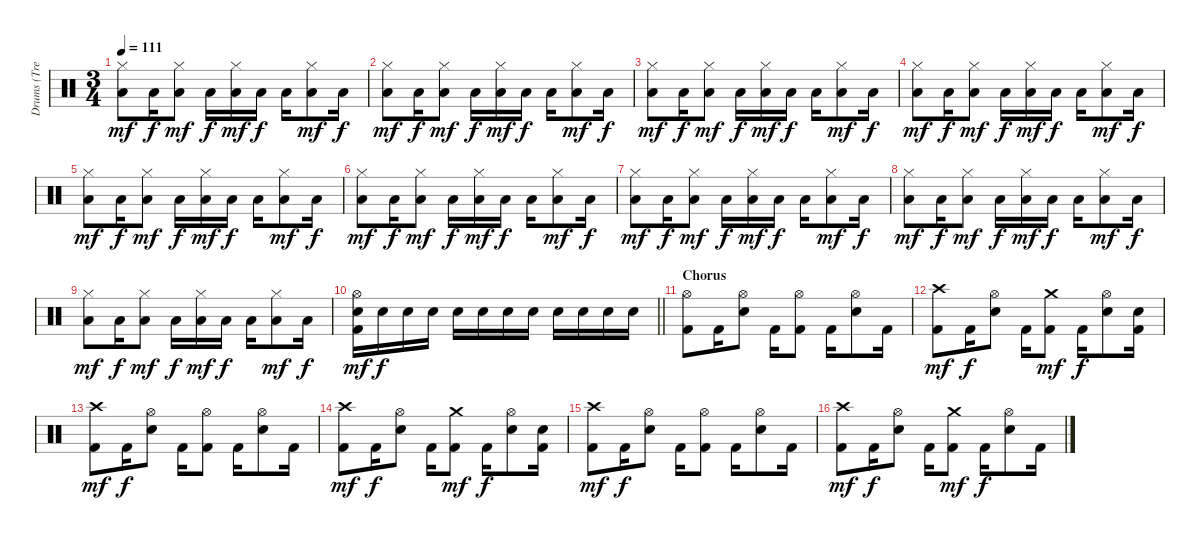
\track ("Drums (Tre Cool)" "Drums (Tre") {instrument percussion}
\staff {score}
\articulation defaults
\ts (3 4)
\tempo 111
\clef neutral
\ks c
("Hi-Hat (closed)" "Low Floor Tom (hit)").8{dy mf} "Low Floor Tom (hit)".16{dy f} ("Hi-Hat (closed)" "Low Tom (hit)").8{dy mf} "Low Tom (hit)".16{dy f} ("Hi-Hat (closed)" "Low Floor Tom (hit)").16{dy mf} "Low Floor Tom (hit)".16{dy f} "Low Floor Tom (hit)".16 ("Hi-Hat (closed)" "Low Tom (hit)").8{dy mf} "Low Tom (hit)".16{dy f} |
("Hi-Hat (closed)" "Low Floor Tom (hit)").8{dy mf} "Low Floor Tom (hit)".16{dy f} ("Hi-Hat (closed)" "Low Tom (hit)").8{dy mf} "Low Tom (hit)".16{dy f} ("Hi-Hat (closed)" "Low Floor Tom (hit)").16{dy mf} "Low Floor Tom (hit)".16{dy f} "Low Floor Tom (hit)".16 ("Hi-Hat (closed)" "Low Tom (hit)").8{dy mf} "Low Tom (hit)".16{dy f} |
("Hi-Hat (closed)" "Low Floor Tom (hit)").8{dy mf} "Low Floor Tom (hit)".16{dy f} ("Hi-Hat (closed)" "Low Tom (hit)").8{dy mf} "Low Tom (hit)".16{dy f} ("Hi-Hat (closed)" "Low Floor Tom (hit)").16{dy mf} "Low Floor Tom (hit)".16{dy f} "Low Floor Tom (hit)".16 ("Hi-Hat (closed)" "Low Tom (hit)").8{dy mf} "Low Tom (hit)".16{dy f} |
("Hi-Hat (closed)" "Low Floor Tom (hit)").8{dy mf} "Low Floor Tom (hit)".16{dy f} ("Hi-Hat (closed)" "Low Tom (hit)").8{dy mf} "Low Tom (hit)".16{dy f} ("Hi-Hat (closed)" "Low Floor Tom (hit)").16{dy mf} "Low Floor Tom (hit)".16{dy f} "Low Floor Tom (hit)".16 ("Hi-Hat (closed)" "Low Tom (hit)").8{dy mf} "Low Tom (hit)".16{dy f} |
("Hi-Hat (closed)" "Low Floor Tom (hit)").8{dy mf} "Low Floor Tom (hit)".16{dy f} ("Hi-Hat (closed)" "Low Tom (hit)").8{dy mf} "Low Tom (hit)".16{dy f} ("Hi-Hat (closed)" "Low Floor Tom (hit)").16{dy mf} "Low Floor Tom (hit)".16{dy f} "Low Floor Tom (hit)".16 ("Hi-Hat (closed)" "Low Tom (hit)").8{dy mf} "Low Tom (hit)".16{dy f} |
("Hi-Hat (closed)" "Low Floor Tom (hit)").8{dy mf} "Low Floor Tom (hit)".16{dy f} ("Hi-Hat (closed)" "Low Tom (hit)").8{dy mf} "Low Tom (hit)".16{dy f} ("Hi-Hat (closed)" "Low Floor Tom (hit)").16{dy mf} "Low Floor Tom (hit)".16{dy f} "Low Floor Tom (hit)".16 ("Hi-Hat (closed)" "Low Tom (hit)").8{dy mf} "Low Tom (hit)".16{dy f} |
("Hi-Hat (closed)" "Low Floor Tom (hit)").8{dy mf} "Low Floor Tom (hit)".16{dy f} ("Hi-Hat (closed)" "Low Tom (hit)").8{dy mf} "Low Tom (hit)".16{dy f} ("Hi-Hat (closed)" "Low Floor Tom (hit)").16{dy mf} "Low Floor Tom (hit)".16{dy f} "Low Floor Tom (hit)".16 ("Hi-Hat (closed)" "Low Tom (hit)").8{dy mf} "Low Tom (hit)".16{dy f} |
("Hi-Hat (closed)" "Low Floor Tom (hit)").8{dy mf} "Low Floor Tom (hit)".16{dy f} ("Hi-Hat (closed)" "Low Tom (hit)").8{dy mf} "Low Tom (hit)".16{dy f} ("Hi-Hat (closed)" "Low Floor Tom (hit)").16{dy mf} "Low Floor Tom (hit)".16{dy f} "Low Floor Tom (hit)".16 ("Hi-Hat (closed)" "Low Tom (hit)").8{dy mf} "Low Tom (hit)".16{dy f} |
("Hi-Hat (closed)" "Low Floor Tom (hit)").8{dy mf} "Low Floor Tom (hit)".16{dy f} ("Hi-Hat (closed)" "Low Tom (hit)").8{dy mf} "Low Tom (hit)".16{dy f} ("Hi-Hat (closed)" "Low Floor Tom (hit)").16{dy mf} "Low Floor Tom (hit)".16{dy f} "Low Floor Tom (hit)".16 ("Hi-Hat (closed)" "Low Tom (hit)").8{dy mf} "Low Tom (hit)".16{dy f} |
\barLineRight lightlight
("Hi-Hat (open)" "Electric Snare (hit)" "Kick (hit) 2").16{dy mf} "Electric Snare (hit)".16{dy f} "Electric Snare (hit)".16 "Electric Snare (hit)".16 "Electric Snare (hit)".16 "Electric Snare (hit)".16 "Electric Snare (hit)".16 "Electric Snare (hit)".16 "Electric Snare (hit)".16 "Electric Snare (hit)".16 "Electric Snare (hit)".16 "Electric Snare (hit)".16 |
\section ("" "Chorus")
("Hi-Hat (open)" "Kick (hit) 2").8 "Kick (hit) 2".16 ("Hi-Hat (open)" "Electric Snare (hit)").8 "Kick (hit) 2".16 ("Hi-Hat (open)" "Kick (hit) 2").8 "Kick (hit) 2".16 ("Hi-Hat (open)" "Electric Snare (hit)").8 "Kick (hit) 2".16 |
("Crash high (hit)" "Kick (hit) 2").8{dy mf} "Kick (hit) 2".16{dy f} ("Hi-Hat (open)" "Electric Snare (hit)").8 "Kick (hit) 2".16 ("Crash medium (hit)" "Kick (hit) 2").8{dy mf} "Kick (hit) 2".16{dy f} ("Hi-Hat (open)" "Electric Snare (hit)").8 ("Electric Snare (hit)" "Kick (hit) 2").16 |
("Crash high (hit)" "Kick (hit) 2").8{dy mf} "Kick (hit) 2".16{dy f} ("Hi-Hat (open)" "Electric Snare (hit)").8 "Kick (hit) 2".16 ("Hi-Hat (open)" "Kick (hit) 2").8 "Kick (hit) 2".16 ("Hi-Hat (open)" "Electric Snare (hit)").8 "Kick (hit) 2".16 |
("Crash high (hit)" "Kick (hit) 2").8{dy mf} "Kick (hit) 2".16{dy f} ("Hi-Hat (open)" "Electric Snare (hit)").8 "Kick (hit) 2".16 ("Crash medium (hit)" "Kick (hit) 2").8{dy mf} "Kick (hit) 2".16{dy f} ("Hi-Hat (open)" "Electric Snare (hit)").8 ("Electric Snare (hit)" "Kick (hit) 2").16 |
("Crash high (hit)" "Kick (hit) 2").8{dy mf} "Kick (hit) 2".16{dy f} ("Hi-Hat (open)" "Electric Snare (hit)").8 "Kick (hit) 2".16 ("Hi-Hat (open)" "Kick (hit) 2").8 "Kick (hit) 2".16 ("Hi-Hat (open)" "Electric Snare (hit)").8 "Kick (hit) 2".16 |
("Crash high (hit)" "Kick (hit) 2").8{dy mf} "Kick (hit) 2".16{dy f} ("Hi-Hat (open)" "Electric Snare (hit)").8 "Kick (hit) 2".16 ("Crash medium (hit)" "Kick (hit) 2").8{dy mf} "Kick (hit) 2".16{dy f} ("Hi-Hat (open)" "Electric Snare (hit)").8 "Kick (hit) 2".16
